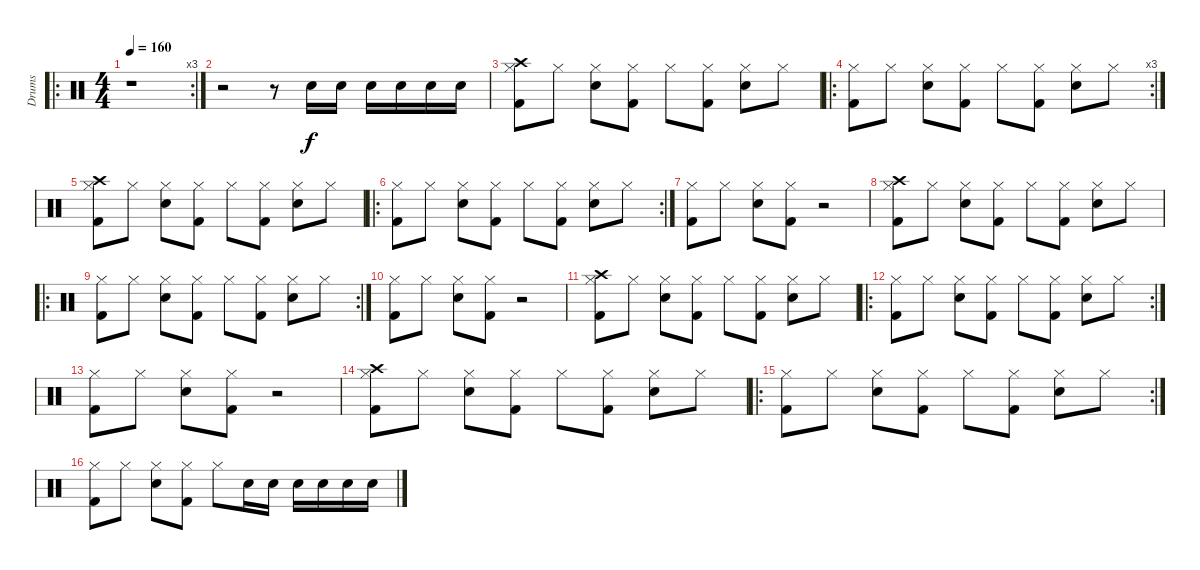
\track ("Drums" "Drums") {instrument percussion}
\staff {score}
\articulation defaults
\ro
\rc 3
\ts (4 4)
\tempo 160
\clef neutral
\ks c
r.1{dy f} |
r.2 r.8 "Snare (hit) 2".16 "Snare (hit) 2".16 "Snare (hit) 2".16 "Snare (hit) 2".16 "Snare (hit) 2".16 "Snare (hit) 2".16 |
("Crash high (hit)" "Hi-Hat (closed)" "Kick (hit) 2").8 "Hi-Hat (closed)".8 ("Hi-Hat (closed)" "Snare (hit) 2").8 ("Hi-Hat (closed)" "Kick (hit) 2").8 "Hi-Hat (closed)".8 ("Hi-Hat (closed)" "Kick (hit) 2").8 ("Hi-Hat (closed)" "Snare (hit) 2").8 "Hi-Hat (closed)".8 |
\ro
\rc 3
("Hi-Hat (closed)" "Kick (hit) 2").8 "Hi-Hat (closed)".8 ("Hi-Hat (closed)" "Snare (hit) 2").8 ("Hi-Hat (closed)" "Kick (hit) 2").8 "Hi-Hat (closed)".8 ("Hi-Hat (closed)" "Kick (hit) 2").8 ("Hi-Hat (closed)" "Snare (hit) 2").8 "Hi-Hat (closed)".8 |
("Crash high (hit)" "Hi-Hat (closed)" "Kick (hit) 2").8 "Hi-Hat (closed)".8 ("Hi-Hat (closed)" "Snare (hit) 2").8 ("Hi-Hat (closed)" "Kick (hit) 2").8 "Hi-Hat (closed)".8 ("Hi-Hat (closed)" "Kick (hit) 2").8 ("Hi-Hat (closed)" "Snare (hit) 2").8 "Hi-Hat (closed)".8 |
\ro
\rc 2
("Hi-Hat (closed)" "Kick (hit) 2").8 "Hi-Hat (closed)".8 ("Hi-Hat (closed)" "Snare (hit) 2").8 ("Hi-Hat (closed)" "Kick (hit) 2").8 "Hi-Hat (closed)".8 ("Hi-Hat (closed)" "Kick (hit) 2").8 ("Hi-Hat (closed)" "Snare (hit) 2").8 "Hi-Hat (closed)".8 |
("Hi-Hat (closed)" "Kick (hit) 2").8 "Hi-Hat (closed)".8 ("Hi-Hat (closed)" "Snare (hit) 2").8 ("Hi-Hat (closed)" "Kick (hit) 2").8 r.2 |
("Crash high (hit)" "Hi-Hat (closed)" "Kick (hit) 2").8 "Hi-Hat (closed)".8 ("Hi-Hat (closed)" "Snare (hit) 2").8 ("Hi-Hat (closed)" "Kick (hit) 2").8 "Hi-Hat (closed)".8 ("Hi-Hat (closed)" "Kick (hit) 2").8 ("Hi-Hat (closed)" "Snare (hit) 2").8 "Hi-Hat (closed)".8 |
\ro
\rc 2
("Hi-Hat (closed)" "Kick (hit) 2").8 "Hi-Hat (closed)".8 ("Hi-Hat (closed)" "Snare (hit) 2").8 ("Hi-Hat (closed)" "Kick (hit) 2").8 "Hi-Hat (closed)".8 ("Hi-Hat (closed)" "Kick (hit) 2").8 ("Hi-Hat (closed)" "Snare (hit) 2").8 "Hi-Hat (closed)".8 |
("Hi-Hat (closed)" "Kick (hit) 2").8 "Hi-Hat (closed)".8 ("Hi-Hat (closed)" "Snare (hit) 2").8 ("Hi-Hat (closed)" "Kick (hit) 2").8 r.2 |
("Crash high (hit)" "Hi-Hat (closed)" "Kick (hit) 2").8 "Hi-Hat (closed)".8 ("Hi-Hat (closed)" "Snare (hit) 2").8 ("Hi-Hat (closed)" "Kick (hit) 2").8 "Hi-Hat (closed)".8 ("Hi-Hat (closed)" "Kick (hit) 2").8 ("Hi-Hat (closed)" "Snare (hit) 2").8 "Hi-Hat (closed)".8 |
\ro
\rc 2
("Hi-Hat (closed)" "Kick (hit) 2").8 "Hi-Hat (closed)".8 ("Hi-Hat (closed)" "Snare (hit) 2").8 ("Hi-Hat (closed)" "Kick (hit) 2").8 "Hi-Hat (closed)".8 ("Hi-Hat (closed)" "Kick (hit) 2").8 ("Hi-Hat (closed)" "Snare (hit) 2").8 "Hi-Hat (closed)".8 |
("Hi-Hat (closed)" "Kick (hit) 2").8 "Hi-Hat (closed)".8 ("Hi-Hat (closed)" "Snare (hit) 2").8 ("Hi-Hat (closed)" "Kick (hit) 2").8 r.2 |
("Crash high (hit)" "Hi-Hat (closed)" "Kick (hit) 2").8 "Hi-Hat (closed)".8 ("Hi-Hat (closed)" "Snare (hit) 2").8 ("Hi-Hat (closed)" "Kick (hit) 2").8 "Hi-Hat (closed)".8 ("Hi-Hat (closed)" "Kick (hit) 2").8 ("Hi-Hat (closed)" "Snare (hit) 2").8 "Hi-Hat (closed)".8 |
\ro
\rc 2
("Hi-Hat (closed)" "Kick (hit) 2").8 "Hi-Hat (closed)".8 ("Hi-Hat (closed)" "Snare (hit) 2").8 ("Hi-Hat (closed)" "Kick (hit) 2").8 "Hi-Hat (closed)".8 ("Hi-Hat (closed)" "Kick (hit) 2").8 ("Hi-Hat (closed)" "Snare (hit) 2").8 "Hi-Hat (closed)".8 |
("Hi-Hat (closed)" "Kick (hit) 2").8 "Hi-Hat (closed)".8 ("Hi-Hat (closed)" "Snare (hit) 2").8 ("Hi-Hat (closed)" "Kick (hit) 2").8 "Hi-Hat (closed)".8 "Snare (hit) 2".16 "Snare (hit) 2".16 "Snare (hit) 2".16 "Snare (hit) 2".16 "Snare (hit) 2".16 "Snare (hit) 2".16
